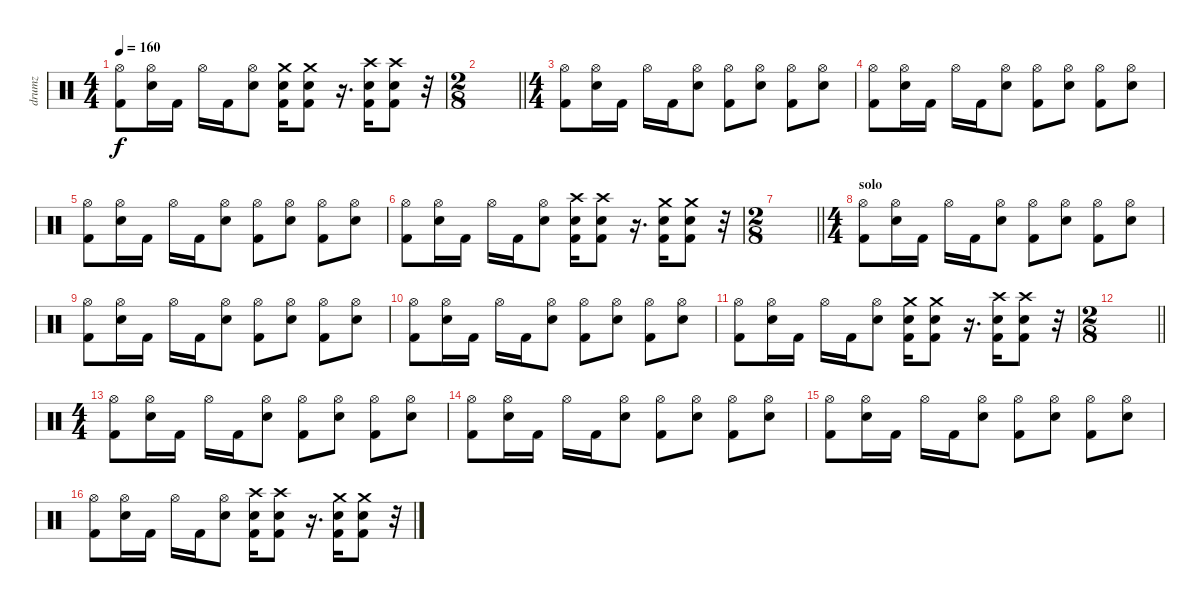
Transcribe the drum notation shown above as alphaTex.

\track ("drumz" "drumz") {instrument percussion}
\staff {score}
\articulation defaults
\ts (4 4)
\tempo 160
\clef neutral
\ks c
("Hi-Hat (open)" "Kick (hit) 2").8{dy f} ("Hi-Hat (open)" "Electric Snare (hit)").16 "Kick (hit) 2".16 "Hi-Hat (open)".16 "Kick (hit) 2".16 ("Hi-Hat (open)" "Electric Snare (hit)").8 ("Crash medium (hit)" "Electric Snare (hit)" "Kick (hit) 2").16 ("Crash medium (hit)" "Electric Snare (hit)" "Kick (hit) 2").8 r.16{d} ("Crash high (hit)" "Electric Snare (hit)" "Kick (hit) 2").16 ("Crash high (hit)" "Electric Snare (hit)" "Kick (hit) 2").8 r.32 |
\ts (2 8)
\barLineRight lightlight
|
\ts (4 4)
("Hi-Hat (open)" "Kick (hit) 2").8 ("Hi-Hat (open)" "Electric Snare (hit)").16 "Kick (hit) 2".16 "Hi-Hat (open)".16 "Kick (hit) 2".16 ("Hi-Hat (open)" "Electric Snare (hit)").8 ("Hi-Hat (open)" "Kick (hit) 2").8 ("Hi-Hat (open)" "Electric Snare (hit)").8 ("Hi-Hat (open)" "Kick (hit) 2").8 ("Hi-Hat (open)" "Electric Snare (hit)").8 |
("Hi-Hat (open)" "Kick (hit) 2").8 ("Hi-Hat (open)" "Electric Snare (hit)").16 "Kick (hit) 2".16 "Hi-Hat (open)".16 "Kick (hit) 2".16 ("Hi-Hat (open)" "Electric Snare (hit)").8 ("Hi-Hat (open)" "Kick (hit) 2").8 ("Hi-Hat (open)" "Electric Snare (hit)").8 ("Hi-Hat (open)" "Kick (hit) 2").8 ("Hi-Hat (open)" "Electric Snare (hit)").8 |
("Hi-Hat (open)" "Kick (hit) 2").8 ("Hi-Hat (open)" "Electric Snare (hit)").16 "Kick (hit) 2".16 "Hi-Hat (open)".16 "Kick (hit) 2".16 ("Hi-Hat (open)" "Electric Snare (hit)").8 ("Hi-Hat (open)" "Kick (hit) 2").8 ("Hi-Hat (open)" "Electric Snare (hit)").8 ("Hi-Hat (open)" "Kick (hit) 2").8 ("Hi-Hat (open)" "Electric Snare (hit)").8 |
("Hi-Hat (open)" "Kick (hit) 2").8 ("Hi-Hat (open)" "Electric Snare (hit)").16 "Kick (hit) 2".16 "Hi-Hat (open)".16 "Kick (hit) 2".16 ("Hi-Hat (open)" "Electric Snare (hit)").8 ("Crash high (hit)" "Electric Snare (hit)" "Kick (hit) 2").16 ("Crash high (hit)" "Electric Snare (hit)" "Kick (hit) 2").8 r.16{d} ("Crash medium (hit)" "Electric Snare (hit)" "Kick (hit) 2").16 ("Crash medium (hit)" "Electric Snare (hit)" "Kick (hit) 2").8 r.32 |
\ts (2 8)
\barLineRight lightlight
|
\ts (4 4)
\section ("" "solo")
("Hi-Hat (open)" "Kick (hit) 2").8 ("Hi-Hat (open)" "Electric Snare (hit)").16 "Kick (hit) 2".16 "Hi-Hat (open)".16 "Kick (hit) 2".16 ("Hi-Hat (open)" "Electric Snare (hit)").8 ("Hi-Hat (open)" "Kick (hit) 2").8 ("Hi-Hat (open)" "Electric Snare (hit)").8 ("Hi-Hat (open)" "Kick (hit) 2").8 ("Hi-Hat (open)" "Electric Snare (hit)").8 |
("Hi-Hat (open)" "Kick (hit) 2").8 ("Hi-Hat (open)" "Electric Snare (hit)").16 "Kick (hit) 2".16 "Hi-Hat (open)".16 "Kick (hit) 2".16 ("Hi-Hat (open)" "Electric Snare (hit)").8 ("Hi-Hat (open)" "Kick (hit) 2").8 ("Hi-Hat (open)" "Electric Snare (hit)").8 ("Hi-Hat (open)" "Kick (hit) 2").8 ("Hi-Hat (open)" "Electric Snare (hit)").8 |
("Hi-Hat (open)" "Kick (hit) 2").8 ("Hi-Hat (open)" "Electric Snare (hit)").16 "Kick (hit) 2".16 "Hi-Hat (open)".16 "Kick (hit) 2".16 ("Hi-Hat (open)" "Electric Snare (hit)").8 ("Hi-Hat (open)" "Kick (hit) 2").8 ("Hi-Hat (open)" "Electric Snare (hit)").8 ("Hi-Hat (open)" "Kick (hit) 2").8 ("Hi-Hat (open)" "Electric Snare (hit)").8 |
("Hi-Hat (open)" "Kick (hit) 2").8 ("Hi-Hat (open)" "Electric Snare (hit)").16 "Kick (hit) 2".16 "Hi-Hat (open)".16 "Kick (hit) 2".16 ("Hi-Hat (open)" "Electric Snare (hit)").8 ("Crash medium (hit)" "Electric Snare (hit)" "Kick (hit) 2").16 ("Crash medium (hit)" "Electric Snare (hit)" "Kick (hit) 2").8 r.16{d} ("Crash high (hit)" "Electric Snare (hit)" "Kick (hit) 2").16 ("Crash high (hit)" "Electric Snare (hit)" "Kick (hit) 2").8 r.32 |
\ts (2 8)
\barLineRight lightlight
|
\ts (4 4)
("Hi-Hat (open)" "Kick (hit) 2").8 ("Hi-Hat (open)" "Electric Snare (hit)").16 "Kick (hit) 2".16 "Hi-Hat (open)".16 "Kick (hit) 2".16 ("Hi-Hat (open)" "Electric Snare (hit)").8 ("Hi-Hat (open)" "Kick (hit) 2").8 ("Hi-Hat (open)" "Electric Snare (hit)").8 ("Hi-Hat (open)" "Kick (hit) 2").8 ("Hi-Hat (open)" "Electric Snare (hit)").8 |
("Hi-Hat (open)" "Kick (hit) 2").8 ("Hi-Hat (open)" "Electric Snare (hit)").16 "Kick (hit) 2".16 "Hi-Hat (open)".16 "Kick (hit) 2".16 ("Hi-Hat (open)" "Electric Snare (hit)").8 ("Hi-Hat (open)" "Kick (hit) 2").8 ("Hi-Hat (open)" "Electric Snare (hit)").8 ("Hi-Hat (open)" "Kick (hit) 2").8 ("Hi-Hat (open)" "Electric Snare (hit)").8 |
("Hi-Hat (open)" "Kick (hit) 2").8 ("Hi-Hat (open)" "Electric Snare (hit)").16 "Kick (hit) 2".16 "Hi-Hat (open)".16 "Kick (hit) 2".16 ("Hi-Hat (open)" "Electric Snare (hit)").8 ("Hi-Hat (open)" "Kick (hit) 2").8 ("Hi-Hat (open)" "Electric Snare (hit)").8 ("Hi-Hat (open)" "Kick (hit) 2").8 ("Hi-Hat (open)" "Electric Snare (hit)").8 |
("Hi-Hat (open)" "Kick (hit) 2").8 ("Hi-Hat (open)" "Electric Snare (hit)").16 "Kick (hit) 2".16 "Hi-Hat (open)".16 "Kick (hit) 2".16 ("Hi-Hat (open)" "Electric Snare (hit)").8 ("Crash high (hit)" "Electric Snare (hit)" "Kick (hit) 2").16 ("Crash high (hit)" "Electric Snare (hit)" "Kick (hit) 2").8 r.16{d} ("Crash medium (hit)" "Electric Snare (hit)" "Kick (hit) 2").16 ("Crash medium (hit)" "Electric Snare (hit)" "Kick (hit) 2").8 r.32
